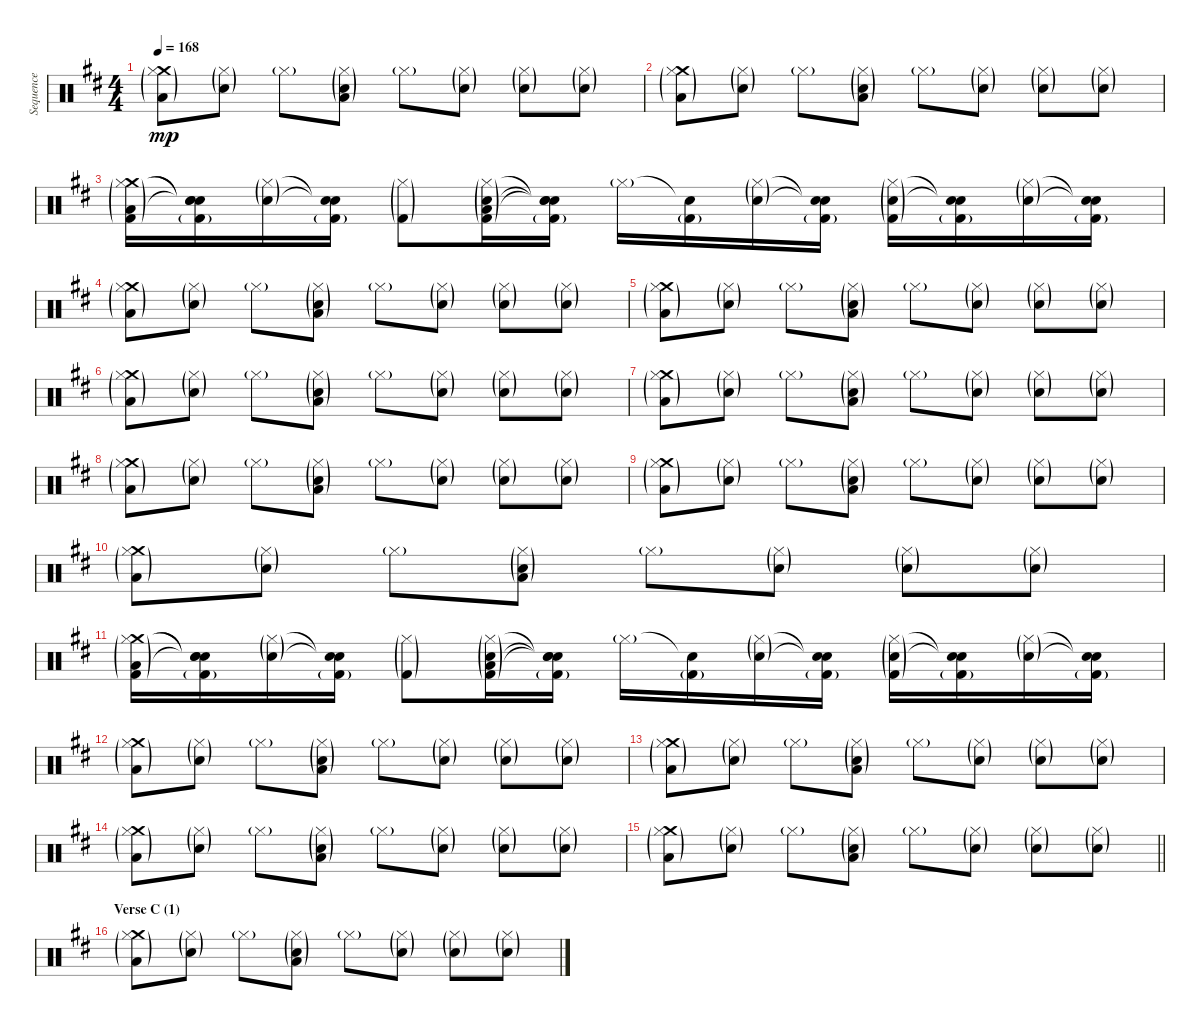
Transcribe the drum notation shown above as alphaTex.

\track ("Sequence" "Sequence") {instrument percussion}
\staff {score}
\articulation defaults
\ts (4 4)
\tempo 168
\clef neutral
\ks d
("Crash medium (hit)"{g} "Hi-Hat (closed)"{g} "Low Floor Tom (hit)"{g}).8{dy mp} ("Hi-Hat (closed)"{g} "Electric Snare (hit)"{g}).8 "Hi-Hat (closed)"{g}.8 ("Hi-Hat (closed)"{g} "Electric Snare (hit)"{g} "Low Floor Tom (hit)"{g}).8 "Hi-Hat (closed)"{g}.8 ("Hi-Hat (closed)"{g} "Electric Snare (hit)"{g}).8 ("Hi-Hat (closed)"{g} "Electric Snare (hit)"{g}).8 ("Hi-Hat (closed)"{g} "Electric Snare (hit)"{g}).8 |
("Crash medium (hit)"{g} "Hi-Hat (closed)"{g} "Low Floor Tom (hit)"{g}).8 ("Hi-Hat (closed)"{g} "Electric Snare (hit)"{g}).8 "Hi-Hat (closed)"{g}.8 ("Hi-Hat (closed)"{g} "Electric Snare (hit)"{g} "Low Floor Tom (hit)"{g}).8 "Hi-Hat (closed)"{g}.8 ("Hi-Hat (closed)"{g} "Electric Snare (hit)"{g}).8 ("Hi-Hat (closed)"{g} "Electric Snare (hit)"{g}).8 ("Hi-Hat (closed)"{g} "Electric Snare (hit)"{g}).8 |
("Crash medium (hit)"{g} "Hi-Hat (closed)"{g} "Low Floor Tom (hit)"{g} "Kick (hit) 2"{g}).16 ("Snare (hit)"{t} "Snare (hit)"{t} "Snare (hit)"{t} "Kick (hit) 2"{g}).16 ("Hi-Hat (closed)"{g} "Electric Snare (hit)"{g}).16 ("Snare (hit)"{t} "Snare (hit)"{t} "Kick (hit) 2"{g}).16 ("Hi-Hat (closed)"{g} "Kick (hit) 2"{g}).8 ("Hi-Hat (closed)"{g} "Electric Snare (hit)"{g} "Low Floor Tom (hit)"{g} "Kick (hit) 2"{g}).16 ("Snare (hit)"{t} "Snare (hit)"{t} "Snare (hit)"{t} "Kick (hit) 2"{g}).16 "Hi-Hat (closed)"{g}.16 ("Snare (hit)"{t} "Kick (hit) 2"{g}).16 ("Hi-Hat (closed)"{g} "Electric Snare (hit)"{g}).16 ("Snare (hit)"{t} "Snare (hit)"{t} "Kick (hit) 2"{g}).16 ("Hi-Hat (closed)"{g} "Electric Snare (hit)"{g} "Kick (hit) 2"{g}).16 ("Snare (hit)"{t} "Snare (hit)"{t} "Kick (hit) 2"{g}).16 ("Hi-Hat (closed)"{g} "Electric Snare (hit)"{g}).16 ("Snare (hit)"{t} "Snare (hit)"{t} "Kick (hit) 2"{g}).16 |
("Crash medium (hit)"{g} "Hi-Hat (closed)"{g} "Low Floor Tom (hit)"{g}).8 ("Hi-Hat (closed)"{g} "Electric Snare (hit)"{g}).8 "Hi-Hat (closed)"{g}.8 ("Hi-Hat (closed)"{g} "Electric Snare (hit)"{g} "Low Floor Tom (hit)"{g}).8 "Hi-Hat (closed)"{g}.8 ("Hi-Hat (closed)"{g} "Electric Snare (hit)"{g}).8 ("Hi-Hat (closed)"{g} "Electric Snare (hit)"{g}).8 ("Hi-Hat (closed)"{g} "Electric Snare (hit)"{g}).8 |
("Crash medium (hit)"{g} "Hi-Hat (closed)"{g} "Low Floor Tom (hit)"{g}).8 ("Hi-Hat (closed)"{g} "Electric Snare (hit)"{g}).8 "Hi-Hat (closed)"{g}.8 ("Hi-Hat (closed)"{g} "Electric Snare (hit)"{g} "Low Floor Tom (hit)"{g}).8 "Hi-Hat (closed)"{g}.8 ("Hi-Hat (closed)"{g} "Electric Snare (hit)"{g}).8 ("Hi-Hat (closed)"{g} "Electric Snare (hit)"{g}).8 ("Hi-Hat (closed)"{g} "Electric Snare (hit)"{g}).8 |
("Crash medium (hit)"{g} "Hi-Hat (closed)"{g} "Low Floor Tom (hit)"{g}).8 ("Hi-Hat (closed)"{g} "Electric Snare (hit)"{g}).8 "Hi-Hat (closed)"{g}.8 ("Hi-Hat (closed)"{g} "Electric Snare (hit)"{g} "Low Floor Tom (hit)"{g}).8 "Hi-Hat (closed)"{g}.8 ("Hi-Hat (closed)"{g} "Electric Snare (hit)"{g}).8 ("Hi-Hat (closed)"{g} "Electric Snare (hit)"{g}).8 ("Hi-Hat (closed)"{g} "Electric Snare (hit)"{g}).8 |
("Crash medium (hit)"{g} "Hi-Hat (closed)"{g} "Low Floor Tom (hit)"{g}).8 ("Hi-Hat (closed)"{g} "Electric Snare (hit)"{g}).8 "Hi-Hat (closed)"{g}.8 ("Hi-Hat (closed)"{g} "Electric Snare (hit)"{g} "Low Floor Tom (hit)"{g}).8 "Hi-Hat (closed)"{g}.8 ("Hi-Hat (closed)"{g} "Electric Snare (hit)"{g}).8 ("Hi-Hat (closed)"{g} "Electric Snare (hit)"{g}).8 ("Hi-Hat (closed)"{g} "Electric Snare (hit)"{g}).8 |
("Crash medium (hit)"{g} "Hi-Hat (closed)"{g} "Low Floor Tom (hit)"{g}).8 ("Hi-Hat (closed)"{g} "Electric Snare (hit)"{g}).8 "Hi-Hat (closed)"{g}.8 ("Hi-Hat (closed)"{g} "Electric Snare (hit)"{g} "Low Floor Tom (hit)"{g}).8 "Hi-Hat (closed)"{g}.8 ("Hi-Hat (closed)"{g} "Electric Snare (hit)"{g}).8 ("Hi-Hat (closed)"{g} "Electric Snare (hit)"{g}).8 ("Hi-Hat (closed)"{g} "Electric Snare (hit)"{g}).8 |
("Crash medium (hit)"{g} "Hi-Hat (closed)"{g} "Low Floor Tom (hit)"{g}).8 ("Hi-Hat (closed)"{g} "Electric Snare (hit)"{g}).8 "Hi-Hat (closed)"{g}.8 ("Hi-Hat (closed)"{g} "Electric Snare (hit)"{g} "Low Floor Tom (hit)"{g}).8 "Hi-Hat (closed)"{g}.8 ("Hi-Hat (closed)"{g} "Electric Snare (hit)"{g}).8 ("Hi-Hat (closed)"{g} "Electric Snare (hit)"{g}).8 ("Hi-Hat (closed)"{g} "Electric Snare (hit)"{g}).8 |
("Crash medium (hit)"{g} "Hi-Hat (closed)"{g} "Low Floor Tom (hit)"{g}).8 ("Hi-Hat (closed)"{g} "Electric Snare (hit)"{g}).8 "Hi-Hat (closed)"{g}.8 ("Hi-Hat (closed)"{g} "Electric Snare (hit)"{g} "Low Floor Tom (hit)"{g}).8 "Hi-Hat (closed)"{g}.8 ("Hi-Hat (closed)"{g} "Electric Snare (hit)"{g}).8 ("Hi-Hat (closed)"{g} "Electric Snare (hit)"{g}).8 ("Hi-Hat (closed)"{g} "Electric Snare (hit)"{g}).8 |
("Crash medium (hit)"{g} "Hi-Hat (closed)"{g} "Low Floor Tom (hit)"{g} "Kick (hit) 2"{g}).16 ("Snare (hit)"{t} "Snare (hit)"{t} "Snare (hit)"{t} "Kick (hit) 2"{g}).16 ("Hi-Hat (closed)"{g} "Electric Snare (hit)"{g}).16 ("Snare (hit)"{t} "Snare (hit)"{t} "Kick (hit) 2"{g}).16 ("Hi-Hat (closed)"{g} "Kick (hit) 2"{g}).8 ("Hi-Hat (closed)"{g} "Electric Snare (hit)"{g} "Low Floor Tom (hit)"{g} "Kick (hit) 2"{g}).16 ("Snare (hit)"{t} "Snare (hit)"{t} "Snare (hit)"{t} "Kick (hit) 2"{g}).16 "Hi-Hat (closed)"{g}.16 ("Snare (hit)"{t} "Kick (hit) 2"{g}).16 ("Hi-Hat (closed)"{g} "Electric Snare (hit)"{g}).16 ("Snare (hit)"{t} "Snare (hit)"{t} "Kick (hit) 2"{g}).16 ("Hi-Hat (closed)"{g} "Electric Snare (hit)"{g} "Kick (hit) 2"{g}).16 ("Snare (hit)"{t} "Snare (hit)"{t} "Kick (hit) 2"{g}).16 ("Hi-Hat (closed)"{g} "Electric Snare (hit)"{g}).16 ("Snare (hit)"{t} "Snare (hit)"{t} "Kick (hit) 2"{g}).16 |
("Crash medium (hit)"{g} "Hi-Hat (closed)"{g} "Low Floor Tom (hit)"{g}).8 ("Hi-Hat (closed)"{g} "Electric Snare (hit)"{g}).8 "Hi-Hat (closed)"{g}.8 ("Hi-Hat (closed)"{g} "Electric Snare (hit)"{g} "Low Floor Tom (hit)"{g}).8 "Hi-Hat (closed)"{g}.8 ("Hi-Hat (closed)"{g} "Electric Snare (hit)"{g}).8 ("Hi-Hat (closed)"{g} "Electric Snare (hit)"{g}).8 ("Hi-Hat (closed)"{g} "Electric Snare (hit)"{g}).8 |
("Crash medium (hit)"{g} "Hi-Hat (closed)"{g} "Low Floor Tom (hit)"{g}).8 ("Hi-Hat (closed)"{g} "Electric Snare (hit)"{g}).8 "Hi-Hat (closed)"{g}.8 ("Hi-Hat (closed)"{g} "Electric Snare (hit)"{g} "Low Floor Tom (hit)"{g}).8 "Hi-Hat (closed)"{g}.8 ("Hi-Hat (closed)"{g} "Electric Snare (hit)"{g}).8 ("Hi-Hat (closed)"{g} "Electric Snare (hit)"{g}).8 ("Hi-Hat (closed)"{g} "Electric Snare (hit)"{g}).8 |
("Crash medium (hit)"{g} "Hi-Hat (closed)"{g} "Low Floor Tom (hit)"{g}).8 ("Hi-Hat (closed)"{g} "Electric Snare (hit)"{g}).8 "Hi-Hat (closed)"{g}.8 ("Hi-Hat (closed)"{g} "Electric Snare (hit)"{g} "Low Floor Tom (hit)"{g}).8 "Hi-Hat (closed)"{g}.8 ("Hi-Hat (closed)"{g} "Electric Snare (hit)"{g}).8 ("Hi-Hat (closed)"{g} "Electric Snare (hit)"{g}).8 ("Hi-Hat (closed)"{g} "Electric Snare (hit)"{g}).8 |
\barLineRight lightlight
("Crash medium (hit)"{g} "Hi-Hat (closed)"{g} "Low Floor Tom (hit)"{g}).8 ("Hi-Hat (closed)"{g} "Electric Snare (hit)"{g}).8 "Hi-Hat (closed)"{g}.8 ("Hi-Hat (closed)"{g} "Electric Snare (hit)"{g} "Low Floor Tom (hit)"{g}).8 "Hi-Hat (closed)"{g}.8 ("Hi-Hat (closed)"{g} "Electric Snare (hit)"{g}).8 ("Hi-Hat (closed)"{g} "Electric Snare (hit)"{g}).8 ("Hi-Hat (closed)"{g} "Electric Snare (hit)"{g}).8 |
\section ("" "Verse C (1)")
("Crash medium (hit)"{g} "Hi-Hat (closed)"{g} "Low Floor Tom (hit)"{g}).8 ("Hi-Hat (closed)"{g} "Electric Snare (hit)"{g}).8 "Hi-Hat (closed)"{g}.8 ("Hi-Hat (closed)"{g} "Electric Snare (hit)"{g} "Low Floor Tom (hit)"{g}).8 "Hi-Hat (closed)"{g}.8 ("Hi-Hat (closed)"{g} "Electric Snare (hit)"{g}).8 ("Hi-Hat (closed)"{g} "Electric Snare (hit)"{g}).8 ("Hi-Hat (closed)"{g} "Electric Snare (hit)"{g}).8
